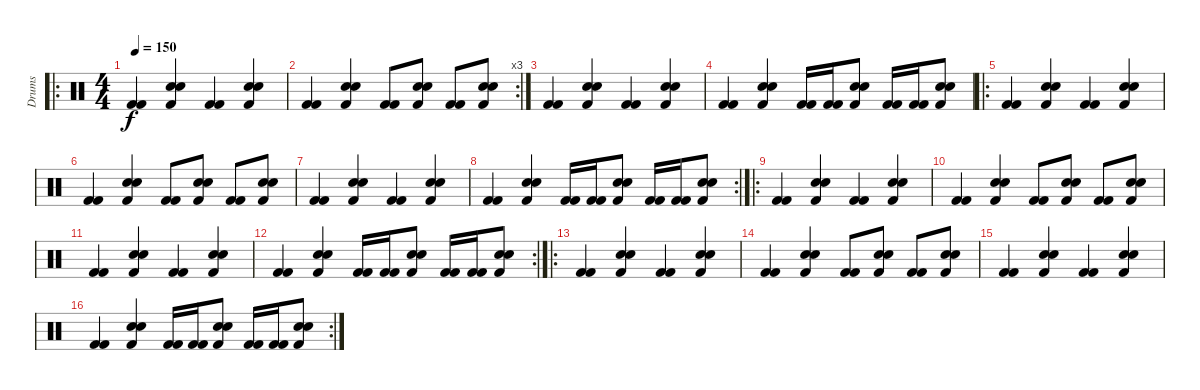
\track ("Drums" "Drums") {instrument percussion}
\staff {score}
\articulation defaults
\ro
\ts (4 4)
\tempo 150
\clef neutral
\ks c
("Kick (hit) 2" "Kick (hit) 2").4{dy f} ("Snare (hit) 2" "Snare (hit) 2" "Kick (hit) 2").4 ("Kick (hit) 2" "Kick (hit) 2").4 ("Snare (hit) 2" "Snare (hit) 2" "Kick (hit) 2").4 |
\rc 3
("Kick (hit) 2" "Kick (hit) 2").4 ("Snare (hit) 2" "Snare (hit) 2" "Kick (hit) 2").4 ("Kick (hit) 2" "Kick (hit) 2").8 ("Snare (hit) 2" "Snare (hit) 2" "Kick (hit) 2").8 ("Kick (hit) 2" "Kick (hit) 2").8 ("Snare (hit) 2" "Snare (hit) 2" "Kick (hit) 2").8 |
("Kick (hit) 2" "Kick (hit) 2").4 ("Snare (hit) 2" "Snare (hit) 2" "Kick (hit) 2").4 ("Kick (hit) 2" "Kick (hit) 2").4 ("Snare (hit) 2" "Snare (hit) 2" "Kick (hit) 2").4 |
("Kick (hit) 2" "Kick (hit) 2").4 ("Snare (hit) 2" "Snare (hit) 2" "Kick (hit) 2").4 ("Kick (hit) 2" "Kick (hit) 2").16 ("Kick (hit) 2" "Kick (hit) 2").16 ("Snare (hit) 2" "Snare (hit) 2" "Kick (hit) 2").8 ("Kick (hit) 2" "Kick (hit) 2").16 ("Kick (hit) 2" "Kick (hit) 2").16 ("Snare (hit) 2" "Snare (hit) 2" "Kick (hit) 2").8 |
\ro
("Kick (hit) 2" "Kick (hit) 2").4 ("Snare (hit) 2" "Snare (hit) 2" "Kick (hit) 2").4 ("Kick (hit) 2" "Kick (hit) 2").4 ("Snare (hit) 2" "Snare (hit) 2" "Kick (hit) 2").4 |
("Kick (hit) 2" "Kick (hit) 2").4 ("Snare (hit) 2" "Snare (hit) 2" "Kick (hit) 2").4 ("Kick (hit) 2" "Kick (hit) 2").8 ("Snare (hit) 2" "Snare (hit) 2" "Kick (hit) 2").8 ("Kick (hit) 2" "Kick (hit) 2").8 ("Snare (hit) 2" "Snare (hit) 2" "Kick (hit) 2").8 |
("Kick (hit) 2" "Kick (hit) 2").4 ("Snare (hit) 2" "Snare (hit) 2" "Kick (hit) 2").4 ("Kick (hit) 2" "Kick (hit) 2").4 ("Snare (hit) 2" "Snare (hit) 2" "Kick (hit) 2").4 |
\rc 2
("Kick (hit) 2" "Kick (hit) 2").4 ("Snare (hit) 2" "Snare (hit) 2" "Kick (hit) 2").4 ("Kick (hit) 2" "Kick (hit) 2").16 ("Kick (hit) 2" "Kick (hit) 2").16 ("Snare (hit) 2" "Snare (hit) 2" "Kick (hit) 2").8 ("Kick (hit) 2" "Kick (hit) 2").16 ("Kick (hit) 2" "Kick (hit) 2").16 ("Snare (hit) 2" "Snare (hit) 2" "Kick (hit) 2").8 |
\ro
("Kick (hit) 2" "Kick (hit) 2").4 ("Snare (hit) 2" "Snare (hit) 2" "Kick (hit) 2").4 ("Kick (hit) 2" "Kick (hit) 2").4 ("Snare (hit) 2" "Snare (hit) 2" "Kick (hit) 2").4 |
("Kick (hit) 2" "Kick (hit) 2").4 ("Snare (hit) 2" "Snare (hit) 2" "Kick (hit) 2").4 ("Kick (hit) 2" "Kick (hit) 2").8 ("Snare (hit) 2" "Snare (hit) 2" "Kick (hit) 2").8 ("Kick (hit) 2" "Kick (hit) 2").8 ("Snare (hit) 2" "Snare (hit) 2" "Kick (hit) 2").8 |
("Kick (hit) 2" "Kick (hit) 2").4 ("Snare (hit) 2" "Snare (hit) 2" "Kick (hit) 2").4 ("Kick (hit) 2" "Kick (hit) 2").4 ("Snare (hit) 2" "Snare (hit) 2" "Kick (hit) 2").4 |
\rc 2
("Kick (hit) 2" "Kick (hit) 2").4 ("Snare (hit) 2" "Snare (hit) 2" "Kick (hit) 2").4 ("Kick (hit) 2" "Kick (hit) 2").16 ("Kick (hit) 2" "Kick (hit) 2").16 ("Snare (hit) 2" "Snare (hit) 2" "Kick (hit) 2").8 ("Kick (hit) 2" "Kick (hit) 2").16 ("Kick (hit) 2" "Kick (hit) 2").16 ("Snare (hit) 2" "Snare (hit) 2" "Kick (hit) 2").8 |
\ro
("Kick (hit) 2" "Kick (hit) 2").4 ("Snare (hit) 2" "Snare (hit) 2" "Kick (hit) 2").4 ("Kick (hit) 2" "Kick (hit) 2").4 ("Snare (hit) 2" "Snare (hit) 2" "Kick (hit) 2").4 |
("Kick (hit) 2" "Kick (hit) 2").4 ("Snare (hit) 2" "Snare (hit) 2" "Kick (hit) 2").4 ("Kick (hit) 2" "Kick (hit) 2").8 ("Snare (hit) 2" "Snare (hit) 2" "Kick (hit) 2").8 ("Kick (hit) 2" "Kick (hit) 2").8 ("Snare (hit) 2" "Snare (hit) 2" "Kick (hit) 2").8 |
("Kick (hit) 2" "Kick (hit) 2").4 ("Snare (hit) 2" "Snare (hit) 2" "Kick (hit) 2").4 ("Kick (hit) 2" "Kick (hit) 2").4 ("Snare (hit) 2" "Snare (hit) 2" "Kick (hit) 2").4 |
\rc 2
("Kick (hit) 2" "Kick (hit) 2").4 ("Snare (hit) 2" "Snare (hit) 2" "Kick (hit) 2").4 ("Kick (hit) 2" "Kick (hit) 2").16 ("Kick (hit) 2" "Kick (hit) 2").16 ("Snare (hit) 2" "Snare (hit) 2" "Kick (hit) 2").8 ("Kick (hit) 2" "Kick (hit) 2").16 ("Kick (hit) 2" "Kick (hit) 2").16 ("Snare (hit) 2" "Snare (hit) 2" "Kick (hit) 2").8
